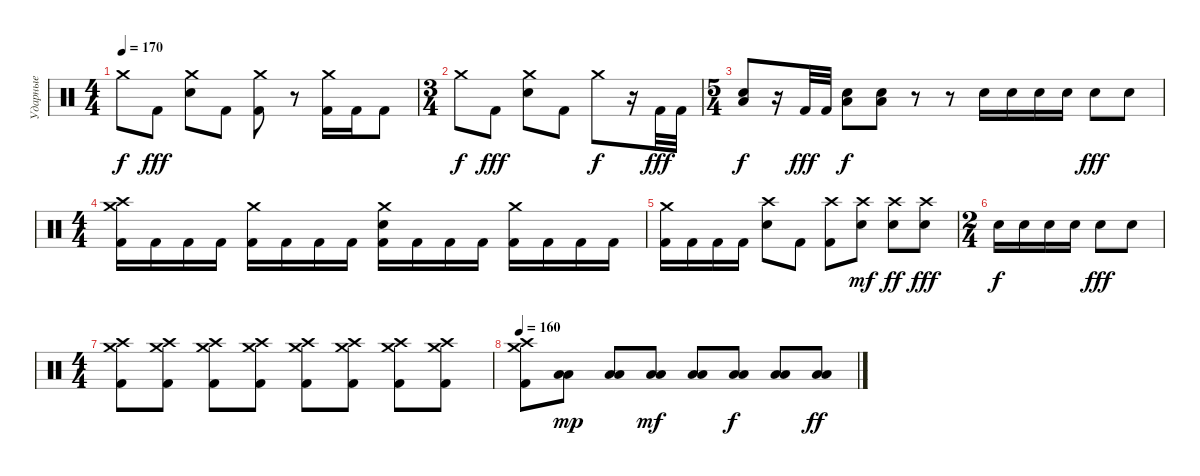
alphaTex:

\track ("Ударные" "Ударные") {instrument percussion}
\staff {score}
\articulation defaults
\ts (4 4)
\tempo 170
\clef neutral
\ks c "Crash medium (hit)".8{dy f} "Kick (hit) 2".8{dy fff}
("Crash medium (hit)" "Electric Snare (hit)").8 "Kick (hit) 2".8 ("Crash medium (hit)" "Kick (hit) 2").8 r.8 ("Crash medium (hit)" "Kick (hit) 2").16 "Kick (hit) 2".16 "Kick (hit) 2".8 |
\ts (3 4)
"Crash medium (hit)".8{dy f} "Kick (hit) 2".8{dy fff} ("Crash medium (hit)" "Electric Snare (hit)").8 "Kick (hit) 2".8 "Crash medium (hit)".8{dy f} r.16 "Kick (hit) 2".32{dy fff} "Kick (hit) 2".32 |
\ts (5 4)
("Low Floor Tom (hit)" "Electric Snare (hit)").8{dy f} r.16 "Kick (hit) 2".32{dy fff} "Kick (hit) 2".32 ("Low Floor Tom (hit)" "Electric Snare (hit)").8{dy f} ("Low Floor Tom (hit)" "Electric Snare (hit)").8 r.8 r.8 "Electric Snare (hit)".16 "Electric Snare (hit)".16 "Electric Snare (hit)".16 "Electric Snare (hit)".16 "Electric Snare (hit)".8{dy fff} "Electric Snare (hit)".8 |
\ts (4 4)
("Crash medium (hit)" "Crash high (hit)" "Kick (hit) 2").16 "Kick (hit) 2".16 "Kick (hit) 2".16 "Kick (hit) 2".16 ("Crash medium (hit)" "Kick (hit) 2").16 "Kick (hit) 2".16 "Kick (hit) 2".16 "Kick (hit) 2".16 ("Crash medium (hit)" "Electric Snare (hit)" "Kick (hit) 2").16 "Kick (hit) 2".16 "Kick (hit) 2".16 "Kick (hit) 2".16 ("Crash medium (hit)" "Kick (hit) 2").16 "Kick (hit) 2".16 "Kick (hit) 2".16 "Kick (hit) 2".16 |
("Crash medium (hit)" "Kick (hit) 2").16 "Kick (hit) 2".16 "Kick (hit) 2".16 "Kick (hit) 2".16 ("Crash high (hit)" "Electric Snare (hit)").8 "Kick (hit) 2".8 ("Crash high (hit)" "Kick (hit) 2").8 ("Crash high (hit)" "Electric Snare (hit)").8{dy mf} ("Crash high (hit)" "Electric Snare (hit)").8{dy ff} ("Crash high (hit)" "Electric Snare (hit)").8{dy fff} |
\ts (2 4)
"Electric Snare (hit)".16{dy f} "Electric Snare (hit)".16 "Electric Snare (hit)".16 "Electric Snare (hit)".16 "Electric Snare (hit)".8{dy fff} "Electric Snare (hit)".8 |
\ts (4 4)
("Crash high (hit)" "Crash medium (hit)" "Kick (hit) 2").8 ("Crash high (hit)" "Crash medium (hit)" "Kick (hit) 2").8 ("Crash high (hit)" "Crash medium (hit)" "Kick (hit) 2").8 ("Crash high (hit)" "Crash medium (hit)" "Kick (hit) 2").8 ("Crash high (hit)" "Crash medium (hit)" "Kick (hit) 2").8 ("Crash high (hit)" "Crash medium (hit)" "Kick (hit) 2").8 ("Crash high (hit)" "Crash medium (hit)" "Kick (hit) 2").8 ("Crash high (hit)" "Crash medium (hit)" "Kick (hit) 2").8 |
\tempo 160
("Crash high (hit)" "Crash medium (hit)" "Kick (hit) 2").8 ("Low Tom (hit)" "Low Floor Tom (hit)").8{dy mp} ("Low Tom (hit)" "Low Floor Tom (hit)").8 ("Low Tom (hit)" "Low Floor Tom (hit)").8{dy mf} ("Low Tom (hit)" "Low Floor Tom (hit)").8 ("Low Tom (hit)" "Low Floor Tom (hit)").8{dy f} ("Low Tom (hit)" "Low Floor Tom (hit)").8 ("Low Tom (hit)" "Low Floor Tom (hit)").8{dy ff}
